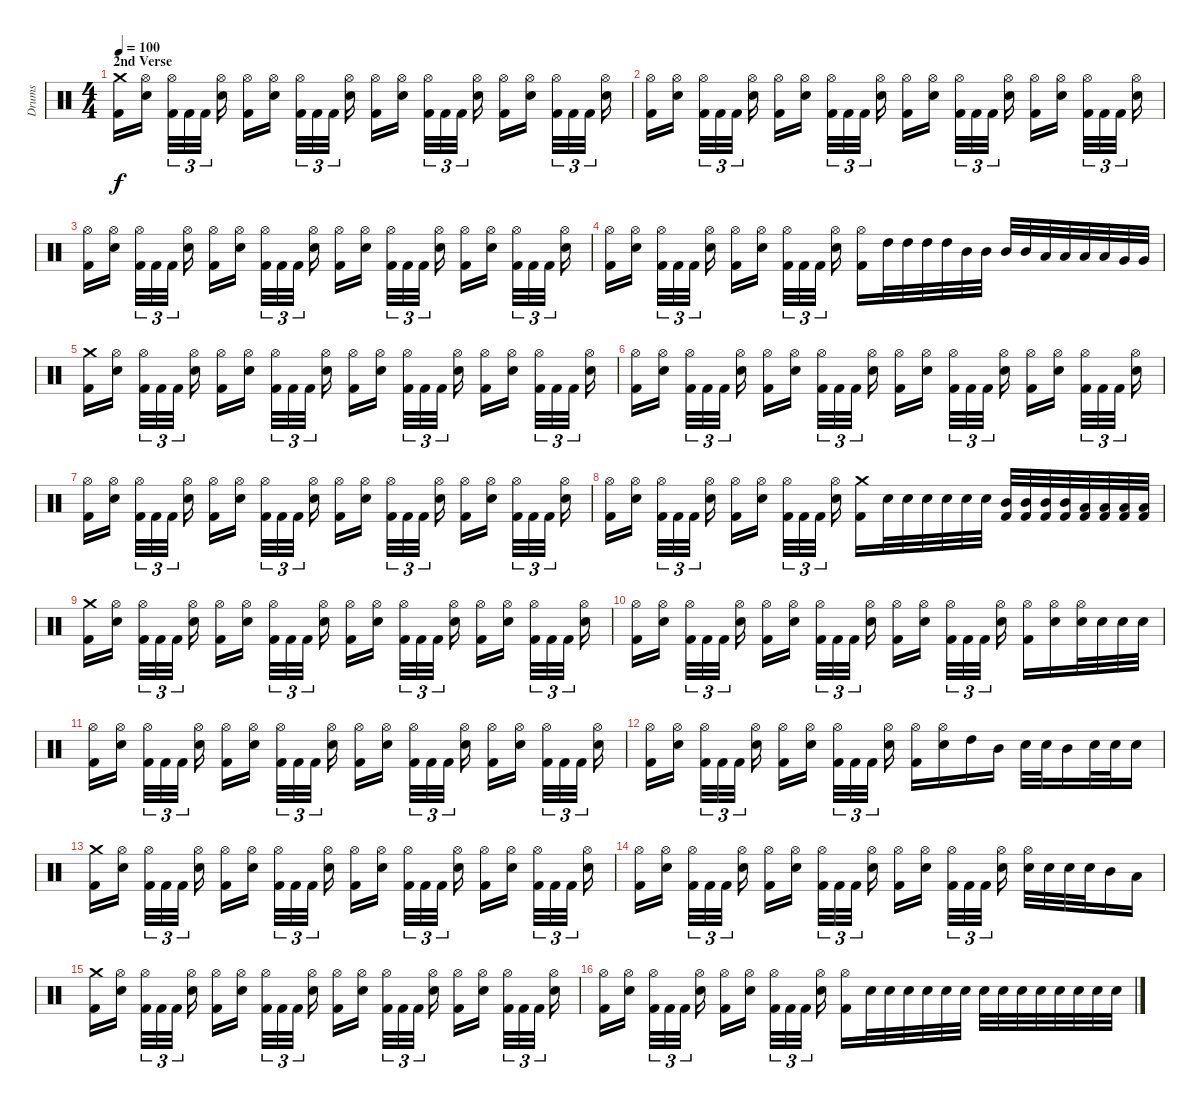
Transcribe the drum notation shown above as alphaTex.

\track ("Drums" "Drums") {instrument percussion}
\staff {score}
\articulation defaults
\ts (4 4)
\section ("" "2nd Verse")
\tempo 100
\clef neutral
\ks c
("Kick (hit) 2" "Crash medium (hit)").16{dy f} ("Electric Snare (hit)" "Hi-Hat (open)").16 ("Kick (hit) 2" "Hi-Hat (open)").32{tu (3 2)} "Kick (hit) 2".32{tu (3 2)} "Kick (hit) 2".32{tu (3 2)} ("Electric Snare (hit)" "Hi-Hat (open)").16 ("Kick (hit) 2" "Hi-Hat (open)").16 ("Electric Snare (hit)" "Hi-Hat (open)").16 ("Kick (hit) 2" "Hi-Hat (open)").32{tu (3 2)} "Kick (hit) 2".32{tu (3 2)} "Kick (hit) 2".32{tu (3 2)} ("Electric Snare (hit)" "Hi-Hat (open)").16 ("Kick (hit) 2" "Hi-Hat (open)").16 ("Electric Snare (hit)" "Hi-Hat (open)").16 ("Kick (hit) 2" "Hi-Hat (open)").32{tu (3 2)} "Kick (hit) 2".32{tu (3 2)} "Kick (hit) 2".32{tu (3 2)} ("Electric Snare (hit)" "Hi-Hat (open)").16 ("Kick (hit) 2" "Hi-Hat (open)").16 ("Electric Snare (hit)" "Hi-Hat (open)").16 ("Kick (hit) 2" "Hi-Hat (open)").32{tu (3 2)} "Kick (hit) 2".32{tu (3 2)} "Kick (hit) 2".32{tu (3 2)} ("Electric Snare (hit)" "Hi-Hat (open)").16 |
("Kick (hit) 2" "Hi-Hat (open)").16 ("Electric Snare (hit)" "Hi-Hat (open)").16 ("Kick (hit) 2" "Hi-Hat (open)").32{tu (3 2)} "Kick (hit) 2".32{tu (3 2)} "Kick (hit) 2".32{tu (3 2)} ("Electric Snare (hit)" "Hi-Hat (open)").16 ("Kick (hit) 2" "Hi-Hat (open)").16 ("Electric Snare (hit)" "Hi-Hat (open)").16 ("Kick (hit) 2" "Hi-Hat (open)").32{tu (3 2)} "Kick (hit) 2".32{tu (3 2)} "Kick (hit) 2".32{tu (3 2)} ("Electric Snare (hit)" "Hi-Hat (open)").16 ("Kick (hit) 2" "Hi-Hat (open)").16 ("Electric Snare (hit)" "Hi-Hat (open)").16 ("Kick (hit) 2" "Hi-Hat (open)").32{tu (3 2)} "Kick (hit) 2".32{tu (3 2)} "Kick (hit) 2".32{tu (3 2)} ("Electric Snare (hit)" "Hi-Hat (open)").16 ("Kick (hit) 2" "Hi-Hat (open)").16 ("Electric Snare (hit)" "Hi-Hat (open)").16 ("Kick (hit) 2" "Hi-Hat (open)").32{tu (3 2)} "Kick (hit) 2".32{tu (3 2)} "Kick (hit) 2".32{tu (3 2)} ("Electric Snare (hit)" "Hi-Hat (open)").16 |
("Kick (hit) 2" "Hi-Hat (open)").16 ("Electric Snare (hit)" "Hi-Hat (open)").16 ("Kick (hit) 2" "Hi-Hat (open)").32{tu (3 2)} "Kick (hit) 2".32{tu (3 2)} "Kick (hit) 2".32{tu (3 2)} ("Electric Snare (hit)" "Hi-Hat (open)").16 ("Kick (hit) 2" "Hi-Hat (open)").16 ("Electric Snare (hit)" "Hi-Hat (open)").16 ("Kick (hit) 2" "Hi-Hat (open)").32{tu (3 2)} "Kick (hit) 2".32{tu (3 2)} "Kick (hit) 2".32{tu (3 2)} ("Electric Snare (hit)" "Hi-Hat (open)").16 ("Kick (hit) 2" "Hi-Hat (open)").16 ("Electric Snare (hit)" "Hi-Hat (open)").16 ("Kick (hit) 2" "Hi-Hat (open)").32{tu (3 2)} "Kick (hit) 2".32{tu (3 2)} "Kick (hit) 2".32{tu (3 2)} ("Electric Snare (hit)" "Hi-Hat (open)").16 ("Kick (hit) 2" "Hi-Hat (open)").16 ("Electric Snare (hit)" "Hi-Hat (open)").16 ("Kick (hit) 2" "Hi-Hat (open)").32{tu (3 2)} "Kick (hit) 2".32{tu (3 2)} "Kick (hit) 2".32{tu (3 2)} ("Electric Snare (hit)" "Hi-Hat (open)").16 |
("Kick (hit) 2" "Hi-Hat (open)").16 ("Electric Snare (hit)" "Hi-Hat (open)").16 ("Kick (hit) 2" "Hi-Hat (open)").32{tu (3 2)} "Kick (hit) 2".32{tu (3 2)} "Kick (hit) 2".32{tu (3 2)} ("Electric Snare (hit)" "Hi-Hat (open)").16 ("Kick (hit) 2" "Hi-Hat (open)").16 ("Electric Snare (hit)" "Hi-Hat (open)").16 ("Kick (hit) 2" "Hi-Hat (open)").32{tu (3 2)} "Kick (hit) 2".32{tu (3 2)} "Kick (hit) 2".32{tu (3 2)} ("Electric Snare (hit)" "Hi-Hat (open)").16 ("Kick (hit) 2" "Hi-Hat (open)").16 "High Tom (hit)".32 "High Tom (hit)".32 "High Tom (hit)".32 "High Tom (hit)".32 "Mid Tom (hit)".32 "Mid Tom (hit)".32 "Mid Tom (hit)".32 "Mid Tom (hit)".32 "Low Tom (hit)".32 "Low Tom (hit)".32 "Low Tom (hit)".32 "Low Tom (hit)".32 "Very Low Tom (hit)".32 "Very Low Tom (hit)".32 |
("Kick (hit) 2" "Crash medium (hit)").16 ("Electric Snare (hit)" "Hi-Hat (open)").16 ("Kick (hit) 2" "Hi-Hat (open)").32{tu (3 2)} "Kick (hit) 2".32{tu (3 2)} "Kick (hit) 2".32{tu (3 2)} ("Electric Snare (hit)" "Hi-Hat (open)").16 ("Kick (hit) 2" "Hi-Hat (open)").16 ("Electric Snare (hit)" "Hi-Hat (open)").16 ("Kick (hit) 2" "Hi-Hat (open)").32{tu (3 2)} "Kick (hit) 2".32{tu (3 2)} "Kick (hit) 2".32{tu (3 2)} ("Electric Snare (hit)" "Hi-Hat (open)").16 ("Kick (hit) 2" "Hi-Hat (open)").16 ("Electric Snare (hit)" "Hi-Hat (open)").16 ("Kick (hit) 2" "Hi-Hat (open)").32{tu (3 2)} "Kick (hit) 2".32{tu (3 2)} "Kick (hit) 2".32{tu (3 2)} ("Electric Snare (hit)" "Hi-Hat (open)").16 ("Kick (hit) 2" "Hi-Hat (open)").16 ("Electric Snare (hit)" "Hi-Hat (open)").16 ("Kick (hit) 2" "Hi-Hat (open)").32{tu (3 2)} "Kick (hit) 2".32{tu (3 2)} "Kick (hit) 2".32{tu (3 2)} ("Electric Snare (hit)" "Hi-Hat (open)").16 |
("Kick (hit) 2" "Hi-Hat (open)").16 ("Electric Snare (hit)" "Hi-Hat (open)").16 ("Kick (hit) 2" "Hi-Hat (open)").32{tu (3 2)} "Kick (hit) 2".32{tu (3 2)} "Kick (hit) 2".32{tu (3 2)} ("Electric Snare (hit)" "Hi-Hat (open)").16 ("Kick (hit) 2" "Hi-Hat (open)").16 ("Electric Snare (hit)" "Hi-Hat (open)").16 ("Kick (hit) 2" "Hi-Hat (open)").32{tu (3 2)} "Kick (hit) 2".32{tu (3 2)} "Kick (hit) 2".32{tu (3 2)} ("Electric Snare (hit)" "Hi-Hat (open)").16 ("Kick (hit) 2" "Hi-Hat (open)").16 ("Electric Snare (hit)" "Hi-Hat (open)").16 ("Kick (hit) 2" "Hi-Hat (open)").32{tu (3 2)} "Kick (hit) 2".32{tu (3 2)} "Kick (hit) 2".32{tu (3 2)} ("Electric Snare (hit)" "Hi-Hat (open)").16 ("Kick (hit) 2" "Hi-Hat (open)").16 ("Electric Snare (hit)" "Hi-Hat (open)").16 ("Kick (hit) 2" "Hi-Hat (open)").32{tu (3 2)} "Kick (hit) 2".32{tu (3 2)} "Kick (hit) 2".32{tu (3 2)} ("Electric Snare (hit)" "Hi-Hat (open)").16 |
("Kick (hit) 2" "Hi-Hat (open)").16 ("Electric Snare (hit)" "Hi-Hat (open)").16 ("Kick (hit) 2" "Hi-Hat (open)").32{tu (3 2)} "Kick (hit) 2".32{tu (3 2)} "Kick (hit) 2".32{tu (3 2)} ("Electric Snare (hit)" "Hi-Hat (open)").16 ("Kick (hit) 2" "Hi-Hat (open)").16 ("Electric Snare (hit)" "Hi-Hat (open)").16 ("Kick (hit) 2" "Hi-Hat (open)").32{tu (3 2)} "Kick (hit) 2".32{tu (3 2)} "Kick (hit) 2".32{tu (3 2)} ("Electric Snare (hit)" "Hi-Hat (open)").16 ("Kick (hit) 2" "Hi-Hat (open)").16 ("Electric Snare (hit)" "Hi-Hat (open)").16 ("Kick (hit) 2" "Hi-Hat (open)").32{tu (3 2)} "Kick (hit) 2".32{tu (3 2)} "Kick (hit) 2".32{tu (3 2)} ("Electric Snare (hit)" "Hi-Hat (open)").16 ("Kick (hit) 2" "Hi-Hat (open)").16 ("Electric Snare (hit)" "Hi-Hat (open)").16 ("Kick (hit) 2" "Hi-Hat (open)").32{tu (3 2)} "Kick (hit) 2".32{tu (3 2)} "Kick (hit) 2".32{tu (3 2)} ("Electric Snare (hit)" "Hi-Hat (open)").16 |
("Kick (hit) 2" "Hi-Hat (open)").16 ("Electric Snare (hit)" "Hi-Hat (open)").16 ("Kick (hit) 2" "Hi-Hat (open)").32{tu (3 2)} "Kick (hit) 2".32{tu (3 2)} "Kick (hit) 2".32{tu (3 2)} ("Electric Snare (hit)" "Hi-Hat (open)").16 ("Kick (hit) 2" "Hi-Hat (open)").16 ("Electric Snare (hit)" "Hi-Hat (open)").16 ("Kick (hit) 2" "Hi-Hat (open)").32{tu (3 2)} "Kick (hit) 2".32{tu (3 2)} "Kick (hit) 2".32{tu (3 2)} ("Electric Snare (hit)" "Hi-Hat (open)").16 ("Kick (hit) 2" "Crash medium (hit)").16 "Electric Snare (hit)".32 "Electric Snare (hit)".32 "Electric Snare (hit)".32 "Electric Snare (hit)".32 "Electric Snare (hit)".32 "Electric Snare (hit)".32 ("Kick (hit) 2" "Mid Tom (hit)").32 ("Kick (hit) 2" "Mid Tom (hit)").32 ("Kick (hit) 2" "Mid Tom (hit)").32 ("Kick (hit) 2" "Mid Tom (hit)").32 ("Kick (hit) 2" "Low Tom (hit)").32 ("Kick (hit) 2" "Low Tom (hit)").32 ("Kick (hit) 2" "Low Tom (hit)").32 ("Kick (hit) 2" "Low Tom (hit)").32 |
("Kick (hit) 2" "Crash medium (hit)").16 ("Electric Snare (hit)" "Hi-Hat (open)").16 ("Kick (hit) 2" "Hi-Hat (open)").32{tu (3 2)} "Kick (hit) 2".32{tu (3 2)} "Kick (hit) 2".32{tu (3 2)} ("Electric Snare (hit)" "Hi-Hat (open)").16 ("Kick (hit) 2" "Hi-Hat (open)").16 ("Electric Snare (hit)" "Hi-Hat (open)").16 ("Kick (hit) 2" "Hi-Hat (open)").32{tu (3 2)} "Kick (hit) 2".32{tu (3 2)} "Kick (hit) 2".32{tu (3 2)} ("Electric Snare (hit)" "Hi-Hat (open)").16 ("Kick (hit) 2" "Hi-Hat (open)").16 ("Electric Snare (hit)" "Hi-Hat (open)").16 ("Kick (hit) 2" "Hi-Hat (open)").32{tu (3 2)} "Kick (hit) 2".32{tu (3 2)} "Kick (hit) 2".32{tu (3 2)} ("Electric Snare (hit)" "Hi-Hat (open)").16 ("Kick (hit) 2" "Hi-Hat (open)").16 ("Electric Snare (hit)" "Hi-Hat (open)").16 ("Kick (hit) 2" "Hi-Hat (open)").32{tu (3 2)} "Kick (hit) 2".32{tu (3 2)} "Kick (hit) 2".32{tu (3 2)} ("Electric Snare (hit)" "Hi-Hat (open)").16 |
("Kick (hit) 2" "Hi-Hat (open)").16 ("Electric Snare (hit)" "Hi-Hat (open)").16 ("Kick (hit) 2" "Hi-Hat (open)").32{tu (3 2)} "Kick (hit) 2".32{tu (3 2)} "Kick (hit) 2".32{tu (3 2)} ("Electric Snare (hit)" "Hi-Hat (open)").16 ("Kick (hit) 2" "Hi-Hat (open)").16 ("Electric Snare (hit)" "Hi-Hat (open)").16 ("Kick (hit) 2" "Hi-Hat (open)").32{tu (3 2)} "Kick (hit) 2".32{tu (3 2)} "Kick (hit) 2".32{tu (3 2)} ("Electric Snare (hit)" "Hi-Hat (open)").16 ("Kick (hit) 2" "Hi-Hat (open)").16 ("Electric Snare (hit)" "Hi-Hat (open)").16 ("Kick (hit) 2" "Hi-Hat (open)").32{tu (3 2)} "Kick (hit) 2".32{tu (3 2)} "Kick (hit) 2".32{tu (3 2)} ("Electric Snare (hit)" "Hi-Hat (open)").16 ("Kick (hit) 2" "Hi-Hat (open)").16 ("Electric Snare (hit)" "Hi-Hat (open)").16 ("Electric Snare (hit)" "Hi-Hat (open)").32 "Electric Snare (hit)".32 "Electric Snare (hit)".32 "Electric Snare (hit)".32 |
("Kick (hit) 2" "Hi-Hat (open)").16 ("Electric Snare (hit)" "Hi-Hat (open)").16 ("Kick (hit) 2" "Hi-Hat (open)").32{tu (3 2)} "Kick (hit) 2".32{tu (3 2)} "Kick (hit) 2".32{tu (3 2)} ("Electric Snare (hit)" "Hi-Hat (open)").16 ("Kick (hit) 2" "Hi-Hat (open)").16 ("Electric Snare (hit)" "Hi-Hat (open)").16 ("Kick (hit) 2" "Hi-Hat (open)").32{tu (3 2)} "Kick (hit) 2".32{tu (3 2)} "Kick (hit) 2".32{tu (3 2)} ("Electric Snare (hit)" "Hi-Hat (open)").16 ("Kick (hit) 2" "Hi-Hat (open)").16 ("Electric Snare (hit)" "Hi-Hat (open)").16 ("Kick (hit) 2" "Hi-Hat (open)").32{tu (3 2)} "Kick (hit) 2".32{tu (3 2)} "Kick (hit) 2".32{tu (3 2)} ("Electric Snare (hit)" "Hi-Hat (open)").16 ("Kick (hit) 2" "Hi-Hat (open)").16 ("Electric Snare (hit)" "Hi-Hat (open)").16 ("Kick (hit) 2" "Hi-Hat (open)").32{tu (3 2)} "Kick (hit) 2".32{tu (3 2)} "Kick (hit) 2".32{tu (3 2)} ("Electric Snare (hit)" "Hi-Hat (open)").16 |
("Kick (hit) 2" "Hi-Hat (open)").16 ("Electric Snare (hit)" "Hi-Hat (open)").16 ("Kick (hit) 2" "Hi-Hat (open)").32{tu (3 2)} "Kick (hit) 2".32{tu (3 2)} "Kick (hit) 2".32{tu (3 2)} ("Electric Snare (hit)" "Hi-Hat (open)").16 ("Kick (hit) 2" "Hi-Hat (open)").16 ("Electric Snare (hit)" "Hi-Hat (open)").16 ("Kick (hit) 2" "Hi-Hat (open)").32{tu (3 2)} "Kick (hit) 2".32{tu (3 2)} "Kick (hit) 2".32{tu (3 2)} ("Electric Snare (hit)" "Hi-Hat (open)").16 ("Kick (hit) 2" "Hi-Hat (open)").16 ("Electric Snare (hit)" "Hi-Hat (open)").16 "High Tom (hit)".16 "Mid Tom (hit)".16 "Electric Snare (hit)".32 "Electric Snare (hit)".32 "Mid Tom (hit)".16 "Electric Snare (hit)".32 "Electric Snare (hit)".32 "Electric Snare (hit)".16 |
("Kick (hit) 2" "Crash medium (hit)").16 ("Electric Snare (hit)" "Hi-Hat (open)").16 ("Kick (hit) 2" "Hi-Hat (open)").32{tu (3 2)} "Kick (hit) 2".32{tu (3 2)} "Kick (hit) 2".32{tu (3 2)} ("Electric Snare (hit)" "Hi-Hat (open)").16 ("Kick (hit) 2" "Hi-Hat (open)").16 ("Electric Snare (hit)" "Hi-Hat (open)").16 ("Kick (hit) 2" "Hi-Hat (open)").32{tu (3 2)} "Kick (hit) 2".32{tu (3 2)} "Kick (hit) 2".32{tu (3 2)} ("Electric Snare (hit)" "Hi-Hat (open)").16 ("Kick (hit) 2" "Hi-Hat (open)").16 ("Electric Snare (hit)" "Hi-Hat (open)").16 ("Kick (hit) 2" "Hi-Hat (open)").32{tu (3 2)} "Kick (hit) 2".32{tu (3 2)} "Kick (hit) 2".32{tu (3 2)} ("Electric Snare (hit)" "Hi-Hat (open)").16 ("Kick (hit) 2" "Hi-Hat (open)").16 ("Electric Snare (hit)" "Hi-Hat (open)").16 ("Kick (hit) 2" "Hi-Hat (open)").32{tu (3 2)} "Kick (hit) 2".32{tu (3 2)} "Kick (hit) 2".32{tu (3 2)} ("Electric Snare (hit)" "Hi-Hat (open)").16 |
("Kick (hit) 2" "Hi-Hat (open)").16 ("Electric Snare (hit)" "Hi-Hat (open)").16 ("Kick (hit) 2" "Hi-Hat (open)").32{tu (3 2)} "Kick (hit) 2".32{tu (3 2)} "Kick (hit) 2".32{tu (3 2)} ("Electric Snare (hit)" "Hi-Hat (open)").16 ("Kick (hit) 2" "Hi-Hat (open)").16 ("Electric Snare (hit)" "Hi-Hat (open)").16 ("Kick (hit) 2" "Hi-Hat (open)").32{tu (3 2)} "Kick (hit) 2".32{tu (3 2)} "Kick (hit) 2".32{tu (3 2)} ("Electric Snare (hit)" "Hi-Hat (open)").16 ("Kick (hit) 2" "Hi-Hat (open)").16 ("Electric Snare (hit)" "Hi-Hat (open)").16 ("Kick (hit) 2" "Hi-Hat (open)").32{tu (3 2)} "Kick (hit) 2".32{tu (3 2)} "Kick (hit) 2".32{tu (3 2)} ("Electric Snare (hit)" "Hi-Hat (open)").16 ("Electric Snare (hit)" "Hi-Hat (open)").32 "Electric Snare (hit)".32 "Electric Snare (hit)".32 "Electric Snare (hit)".32 "Mid Tom (hit)".16 "Low Tom (hit)".16 |
("Kick (hit) 2" "Crash medium (hit)").16 ("Electric Snare (hit)" "Hi-Hat (open)").16 ("Kick (hit) 2" "Hi-Hat (open)").32{tu (3 2)} "Kick (hit) 2".32{tu (3 2)} "Kick (hit) 2".32{tu (3 2)} ("Electric Snare (hit)" "Hi-Hat (open)").16 ("Kick (hit) 2" "Hi-Hat (open)").16 ("Electric Snare (hit)" "Hi-Hat (open)").16 ("Kick (hit) 2" "Hi-Hat (open)").32{tu (3 2)} "Kick (hit) 2".32{tu (3 2)} "Kick (hit) 2".32{tu (3 2)} ("Electric Snare (hit)" "Hi-Hat (open)").16 ("Kick (hit) 2" "Hi-Hat (open)").16 ("Electric Snare (hit)" "Hi-Hat (open)").16 ("Kick (hit) 2" "Hi-Hat (open)").32{tu (3 2)} "Kick (hit) 2".32{tu (3 2)} "Kick (hit) 2".32{tu (3 2)} ("Electric Snare (hit)" "Hi-Hat (open)").16 ("Kick (hit) 2" "Hi-Hat (open)").16 ("Electric Snare (hit)" "Hi-Hat (open)").16 ("Kick (hit) 2" "Hi-Hat (open)").32{tu (3 2)} "Kick (hit) 2".32{tu (3 2)} "Kick (hit) 2".32{tu (3 2)} ("Electric Snare (hit)" "Hi-Hat (open)").16 |
("Kick (hit) 2" "Hi-Hat (open)").16 ("Electric Snare (hit)" "Hi-Hat (open)").16 ("Kick (hit) 2" "Hi-Hat (open)").32{tu (3 2)} "Kick (hit) 2".32{tu (3 2)} "Kick (hit) 2".32{tu (3 2)} ("Electric Snare (hit)" "Hi-Hat (open)").16 ("Kick (hit) 2" "Hi-Hat (open)").16 ("Electric Snare (hit)" "Hi-Hat (open)").16 ("Kick (hit) 2" "Hi-Hat (open)").32{tu (3 2)} "Kick (hit) 2".32{tu (3 2)} "Kick (hit) 2".32{tu (3 2)} ("Electric Snare (hit)" "Hi-Hat (open)").16 ("Kick (hit) 2" "Hi-Hat (open)").16 "Electric Snare (hit)".32 "Electric Snare (hit)".32 "Electric Snare (hit)".32 "Electric Snare (hit)".32 "Electric Snare (hit)".32 "Electric Snare (hit)".32 "Electric Snare (hit)".32 "Electric Snare (hit)".32 "Electric Snare (hit)".32 "Electric Snare (hit)".32 "Electric Snare (hit)".32 "Electric Snare (hit)".32 "Electric Snare (hit)".32 "Electric Snare (hit)".32
